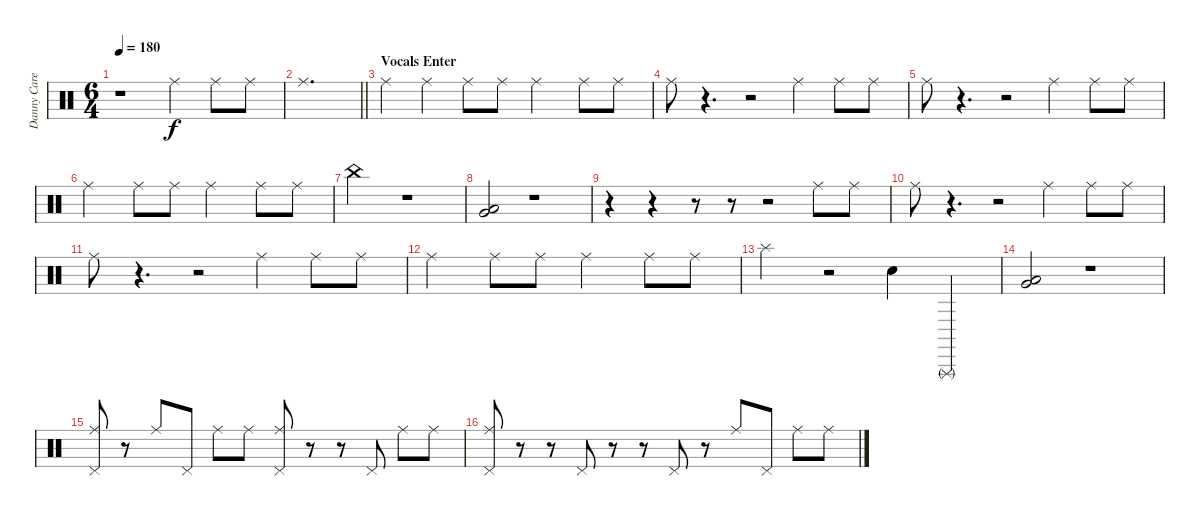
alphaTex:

\track ("Danny Carey" "Danny Care") {instrument percussion}
\staff {score}
\articulation defaults
\ts (6 4)
\tempo 180
\clef neutral
\ks c
r.1{dy f} "Ride (middle)".4 "Ride (middle)".8 "Ride (middle)".8 |
\barLineRight lightlight "Ride (middle)".1{d}
|
\section ("" "Vocals Enter")
"Ride (middle)".4 "Ride (middle)".4 "Ride (middle)".8 "Ride (middle)".8 "Ride (middle)".2 "Ride (middle)".8 "Ride (middle)".8 |
"Ride (middle)".8 r.4{d} r.2 "Ride (middle)".4 "Ride (middle)".8 "Ride (middle)".8 |
"Ride (middle)".8 r.4{d} r.2 "Ride (middle)".4 "Ride (middle)".8 "Ride (middle)".8 |
"Ride (middle)".2 "Ride (middle)".8 "Ride (middle)".8 "Ride (middle)".2 "Ride (middle)".8 "Ride (middle)".8 |
"China (hit)".2 r.1 |
("Very Low Tom (hit)" "Low Floor Tom (hit)").2 r.1 |
r.4 r.4 r.8 r.8 r.2 "Ride (middle)".8 "Ride (middle)".8 |
"Ride (middle)".8 r.4{d} r.2 "Ride (middle)".4 "Ride (middle)".8 "Ride (middle)".8 |
"Ride (middle)".8 r.4{d} r.2 "Ride (middle)".4 "Ride (middle)".8 "Ride (middle)".8 |
"Ride (middle)".2 "Ride (middle)".8 "Ride (middle)".8 "Ride (middle)".2 "Ride (middle)".8 "Ride (middle)".8 |
"Splash (hit)".2 r.2 "Metronome (bell)".4 "Triangle (rnute)".4 |
("Very Low Tom (hit)" "Low Floor Tom (hit)").2 r.1 |
("Ride (middle)" "Pedal Hi-Hat (hit)").8 r.8 "Ride (middle)".8 "Pedal Hi-Hat (hit)".8 "Ride (middle)".8 "Ride (middle)".8 ("Ride (middle)" "Pedal Hi-Hat (hit)").8 r.8 r.8 "Pedal Hi-Hat (hit)".8 "Ride (middle)".8 "Ride (middle)".8 |
("Ride (middle)" "Pedal Hi-Hat (hit)").8 r.8 r.8 "Pedal Hi-Hat (hit)".8 r.8 r.8 "Pedal Hi-Hat (hit)".8 r.8 "Ride (middle)".8 "Pedal Hi-Hat (hit)".8 "Ride (middle)".8 "Ride (middle)".8
